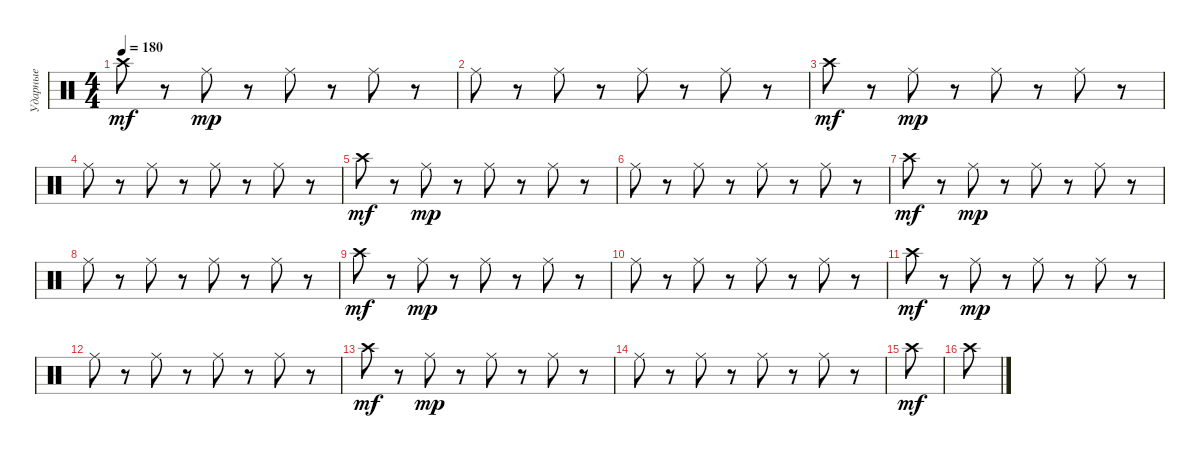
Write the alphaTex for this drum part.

\track ("Ударные" "Ударные") {instrument percussion}
\staff {score}
\articulation defaults
\ts (4 4)
\tempo 180
\clef neutral
\ks c "Crash high (hit)".8{dy mf}
r.8 "Ride (middle)".8{dy mp} r.8 "Ride (middle)".8 r.8 "Ride (middle)".8 r.8 |
"Ride (middle)".8 r.8 "Ride (middle)".8 r.8 "Ride (middle)".8 r.8 "Ride (middle)".8 r.8 |
"Crash high (hit)".8{dy mf} r.8 "Ride (middle)".8{dy mp} r.8 "Ride (middle)".8 r.8 "Ride (middle)".8 r.8 |
"Ride (middle)".8 r.8 "Ride (middle)".8 r.8 "Ride (middle)".8 r.8 "Ride (middle)".8 r.8 |
"Crash high (hit)".8{dy mf} r.8 "Ride (middle)".8{dy mp} r.8 "Ride (middle)".8 r.8 "Ride (middle)".8 r.8 |
"Ride (middle)".8 r.8 "Ride (middle)".8 r.8 "Ride (middle)".8 r.8 "Ride (middle)".8 r.8 |
"Crash high (hit)".8{dy mf} r.8 "Ride (middle)".8{dy mp} r.8 "Ride (middle)".8 r.8 "Ride (middle)".8 r.8 |
"Ride (middle)".8 r.8 "Ride (middle)".8 r.8 "Ride (middle)".8 r.8 "Ride (middle)".8 r.8 |
"Crash high (hit)".8{dy mf} r.8 "Ride (middle)".8{dy mp} r.8 "Ride (middle)".8 r.8 "Ride (middle)".8 r.8 |
"Ride (middle)".8 r.8 "Ride (middle)".8 r.8 "Ride (middle)".8 r.8 "Ride (middle)".8 r.8 |
"Crash high (hit)".8{dy mf} r.8 "Ride (middle)".8{dy mp} r.8 "Ride (middle)".8 r.8 "Ride (middle)".8 r.8 |
"Ride (middle)".8 r.8 "Ride (middle)".8 r.8 "Ride (middle)".8 r.8 "Ride (middle)".8 r.8 |
"Crash high (hit)".8{dy mf} r.8 "Ride (middle)".8{dy mp} r.8 "Ride (middle)".8 r.8 "Ride (middle)".8 r.8 |
"Ride (middle)".8 r.8 "Ride (middle)".8 r.8 "Ride (middle)".8 r.8 "Ride (middle)".8 r.8 |
"Crash high (hit)".8{dy mf} |
"Crash high (hit)".8
